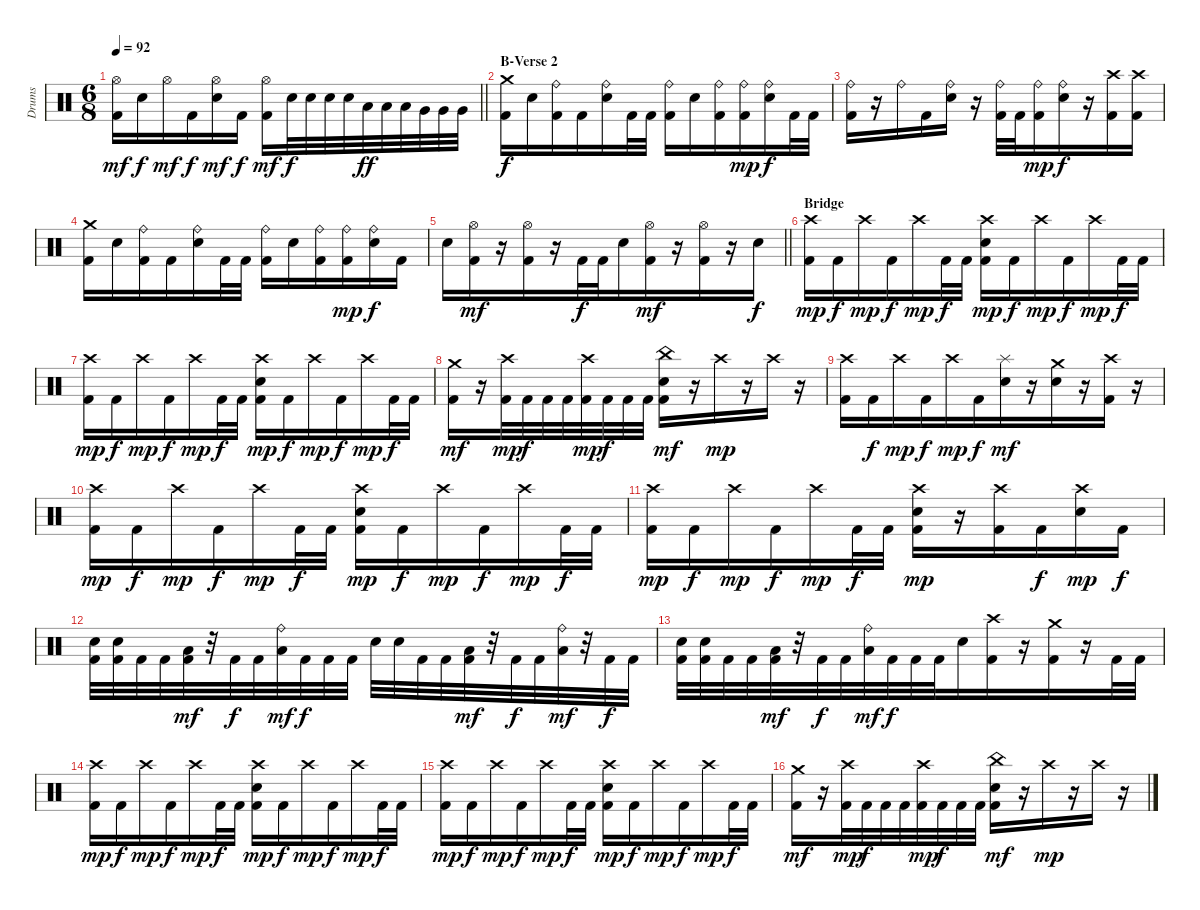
\track ("Drums" "Drums") {instrument percussion}
\staff {score}
\articulation defaults
\ts (6 8)
\tempo 92
\clef neutral
\barLineRight lightlight
\ks c
("Hi-Hat (open)" "Kick (hit) 2").16{dy mf} "Snare (hit) 2".16{dy f beam merge} "Hi-Hat (open)".16{dy mf} "Kick (hit) 2".16{dy f} ("Hi-Hat (open)" "Snare (hit) 2").16{dy mf} "Kick (hit) 2".16{dy f} ("Hi-Hat (open)" "Kick (hit) 2").16{dy mf} "Snare (hit) 2".32{dy f} "Snare (hit) 2".32 "Snare (hit) 2".32 "Snare (hit) 2".32 "Low Tom (hit)".32{dy ff beam merge} "Low Tom (hit)".32 "Low Tom (hit)".32 "Very Low Tom (hit)".32 "Very Low Tom (hit)".32 "Very Low Tom (hit)".32 |
\section ("" "B-Verse 2")
("Crash medium (hit)" "Kick (hit) 2").16{dy f} "Snare (hit) 2".16 ("Ride (bell)" "Kick (hit) 2").16{beam merge} "Kick (hit) 2".16 ("Ride (bell)" "Snare (hit) 2").16 "Kick (hit) 2".32 "Kick (hit) 2".32 ("Ride (bell)" "Kick (hit) 2").16{beam merge} "Snare (hit) 2".16 ("Ride (bell)" "Kick (hit) 2").16 ("Ride (bell)" "Kick (hit) 2").16{dy mp beam merge} ("Ride (bell)" "Snare (hit) 2").16{dy f beam merge} "Kick (hit) 2".32{beam merge} "Kick (hit) 2".32 |
("Ride (bell)" "Kick (hit) 2").16 r.16 "Ride (bell)".16{beam merge} "Kick (hit) 2".16 ("Ride (bell)" "Snare (hit) 2").16 r.16 ("Ride (bell)" "Kick (hit) 2").32 "Kick (hit) 2".32 ("Ride (bell)" "Kick (hit) 2").16{dy mp} ("Ride (bell)" "Snare (hit) 2").16{dy f beam merge} r.16 ("Crash high (hit)" "Kick (hit) 2").16 ("Crash high (hit)" "Kick (hit) 2").16 |
("Crash medium (hit)" "Kick (hit) 2").16 "Snare (hit) 2".16 ("Ride (bell)" "Kick (hit) 2").16{beam merge} "Kick (hit) 2".16 ("Ride (bell)" "Snare (hit) 2").16 "Kick (hit) 2".32 "Kick (hit) 2".32 ("Ride (bell)" "Kick (hit) 2").16{beam merge} "Snare (hit) 2".16 ("Ride (bell)" "Kick (hit) 2").16 ("Ride (bell)" "Kick (hit) 2").16{dy mp beam merge} ("Ride (bell)" "Snare (hit) 2").16{dy f beam merge} "Kick (hit) 2".16 |
\barLineRight lightlight "Snare (hit) 2".16
("Hi-Hat (open)" "Kick (hit) 2").16{dy mf} r.16 ("Hi-Hat (open)" "Kick (hit) 2").16 r.16 "Kick (hit) 2".32{dy f} "Kick (hit) 2".32{beam merge} "Snare (hit) 2".16 ("Hi-Hat (open)" "Kick (hit) 2").16{dy mf} r.16 ("Hi-Hat (open)" "Kick (hit) 2").16 r.16 "Snare (hit) 2".16{dy f} |
\section ("" "Bridge")
("Crash high (hit)" "Kick (hit) 2").16{dy mp} "Kick (hit) 2".16{dy f beam merge} "Crash high (hit)".16{dy mp} "Kick (hit) 2".16{dy f beam merge} "Crash high (hit)".16{dy mp} "Kick (hit) 2".32{dy f} "Kick (hit) 2".32 ("Crash high (hit)" "Snare (hit) 2" "Kick (hit) 2").16{dy mp} "Kick (hit) 2".16{dy f beam merge} "Crash high (hit)".16{dy mp} "Kick (hit) 2".16{dy f beam merge} "Crash high (hit)".16{dy mp} "Kick (hit) 2".32{dy f} "Kick (hit) 2".32 |
("Crash high (hit)" "Kick (hit) 2").16{dy mp} "Kick (hit) 2".16{dy f beam merge} "Crash high (hit)".16{dy mp} "Kick (hit) 2".16{dy f beam merge} "Crash high (hit)".16{dy mp} "Kick (hit) 2".32{dy f} "Kick (hit) 2".32 ("Crash high (hit)" "Snare (hit) 2" "Kick (hit) 2").16{dy mp} "Kick (hit) 2".16{dy f beam merge} "Crash high (hit)".16{dy mp} "Kick (hit) 2".16{dy f beam merge} "Crash high (hit)".16{dy mp} "Kick (hit) 2".32{dy f} "Kick (hit) 2".32 |
("Crash medium (hit)" "Kick (hit) 2").16{dy mf} r.16{beam merge} ("Crash high (hit)" "Kick (hit) 2").32{dy mp beam merge} "Kick (hit) 2".32{dy f beam merge} "Kick (hit) 2".32 "Kick (hit) 2".32{beam merge} ("Crash high (hit)" "Kick (hit) 2").32{dy mp} "Kick (hit) 2".32{dy f} "Kick (hit) 2".32{beam merge} "Kick (hit) 2".32 ("China (hit)" "Snare (hit) 2" "Kick (hit) 2").16{dy mf beam merge} r.16{beam merge} "Crash high (hit)".16{dy mp} r.16{beam merge} "Crash high (hit)".16 r.16 |
("Crash high (hit)" "Kick (hit) 2").16 "Kick (hit) 2".16{dy f} "Crash high (hit)".16{dy mp} "Kick (hit) 2".16{dy f} "Crash high (hit)".16{dy mp} "Kick (hit) 2".16{dy f beam merge} ("Splash (hit)" "Snare (hit) 2").16{dy mf} r.16{beam merge} ("Crash medium (hit)" "Snare (hit) 2").16 r.16 ("Crash high (hit)" "Kick (hit) 2").16 r.16 |
("Crash high (hit)" "Kick (hit) 2").16{dy mp} "Kick (hit) 2".16{dy f beam merge} "Crash high (hit)".16{dy mp} "Kick (hit) 2".16{dy f beam merge} "Crash high (hit)".16{dy mp} "Kick (hit) 2".32{dy f} "Kick (hit) 2".32 ("Crash high (hit)" "Snare (hit) 2" "Kick (hit) 2").16{dy mp} "Kick (hit) 2".16{dy f beam merge} "Crash high (hit)".16{dy mp} "Kick (hit) 2".16{dy f beam merge} "Crash high (hit)".16{dy mp} "Kick (hit) 2".32{dy f} "Kick (hit) 2".32 |
("Crash high (hit)" "Kick (hit) 2").16{dy mp} "Kick (hit) 2".16{dy f beam merge} "Crash high (hit)".16{dy mp} "Kick (hit) 2".16{dy f beam merge} "Crash high (hit)".16{dy mp} "Kick (hit) 2".32{dy f} "Kick (hit) 2".32 ("Crash high (hit)" "Snare (hit) 2" "Kick (hit) 2").16{dy mp} r.16{beam merge} ("Crash high (hit)" "Kick (hit) 2").16 "Kick (hit) 2".16{dy f beam merge} ("Crash high (hit)" "Snare (hit) 2").16{dy mp} "Kick (hit) 2".16{dy f} |
("Snare (hit) 2" "Kick (hit) 2").32 ("Snare (hit) 2" "Kick (hit) 2").32 "Kick (hit) 2".32 "Kick (hit) 2".32 ("Low Floor Tom (hit)" "Kick (hit) 2").32{dy mf} r.32 "Kick (hit) 2".32{dy f} "Kick (hit) 2".32 ("Ride (bell)" "Low Floor Tom (hit)").32{dy mf} "Kick (hit) 2".32{dy f} "Kick (hit) 2".32{beam merge} "Kick (hit) 2".32 "Snare (hit) 2".32 "Snare (hit) 2".32 "Kick (hit) 2".32{beam merge} "Kick (hit) 2".32 ("Low Floor Tom (hit)" "Kick (hit) 2").32{dy mf beam merge} r.32 "Kick (hit) 2".32{dy f} "Kick (hit) 2".32 ("Ride (bell)" "Low Floor Tom (hit)").32{dy mf beam merge} r.32 "Kick (hit) 2".32{dy f} "Kick (hit) 2".32 |
("Snare (hit) 2" "Kick (hit) 2").32 ("Snare (hit) 2" "Kick (hit) 2").32 "Kick (hit) 2".32 "Kick (hit) 2".32 ("Low Floor Tom (hit)" "Kick (hit) 2").32{dy mf} r.32 "Kick (hit) 2".32{dy f} "Kick (hit) 2".32 ("Ride (bell)" "Low Floor Tom (hit)").32{dy mf} "Kick (hit) 2".32{dy f} "Kick (hit) 2".32{beam merge} "Kick (hit) 2".32{beam merge} "Snare (hit) 2".16{beam merge} ("Crash high (hit)" "Kick (hit) 2").16{beam merge} r.16{beam merge} ("Crash medium (hit)" "Kick (hit) 2").16 r.16{beam merge} "Kick (hit) 2".32{beam merge} "Kick (hit) 2".32 |
("Crash high (hit)" "Kick (hit) 2").16{dy mp} "Kick (hit) 2".16{dy f beam merge} "Crash high (hit)".16{dy mp} "Kick (hit) 2".16{dy f beam merge} "Crash high (hit)".16{dy mp} "Kick (hit) 2".32{dy f} "Kick (hit) 2".32 ("Crash high (hit)" "Snare (hit) 2" "Kick (hit) 2").16{dy mp} "Kick (hit) 2".16{dy f beam merge} "Crash high (hit)".16{dy mp} "Kick (hit) 2".16{dy f beam merge} "Crash high (hit)".16{dy mp} "Kick (hit) 2".32{dy f} "Kick (hit) 2".32 |
("Crash high (hit)" "Kick (hit) 2").16{dy mp} "Kick (hit) 2".16{dy f beam merge} "Crash high (hit)".16{dy mp} "Kick (hit) 2".16{dy f beam merge} "Crash high (hit)".16{dy mp} "Kick (hit) 2".32{dy f} "Kick (hit) 2".32 ("Crash high (hit)" "Snare (hit) 2" "Kick (hit) 2").16{dy mp} "Kick (hit) 2".16{dy f beam merge} "Crash high (hit)".16{dy mp} "Kick (hit) 2".16{dy f beam merge} "Crash high (hit)".16{dy mp} "Kick (hit) 2".32{dy f} "Kick (hit) 2".32 |
("Crash medium (hit)" "Kick (hit) 2").16{dy mf} r.16{beam merge} ("Crash high (hit)" "Kick (hit) 2").32{dy mp beam merge} "Kick (hit) 2".32{dy f beam merge} "Kick (hit) 2".32 "Kick (hit) 2".32{beam merge} ("Crash high (hit)" "Kick (hit) 2").32{dy mp} "Kick (hit) 2".32{dy f} "Kick (hit) 2".32{beam merge} "Kick (hit) 2".32 ("China (hit)" "Snare (hit) 2" "Kick (hit) 2").16{dy mf beam merge} r.16{beam merge} "Crash high (hit)".16{dy mp} r.16{beam merge} "Crash high (hit)".16 r.16
